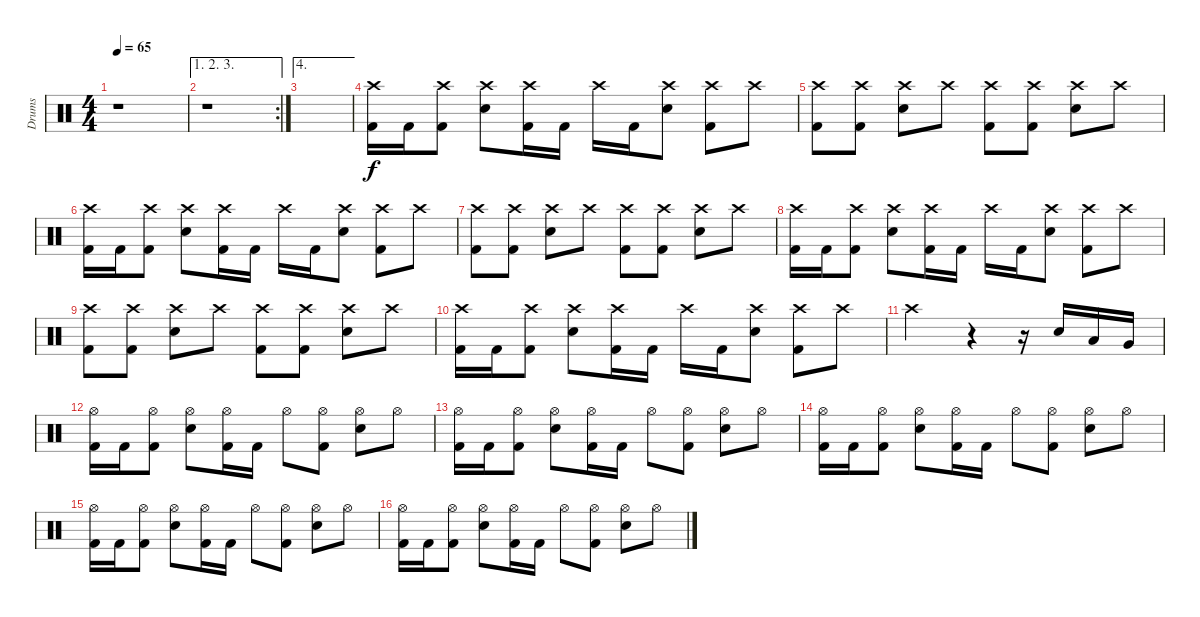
\track ("Drums" "Drums") {instrument percussion}
\staff {score}
\articulation defaults
\ts (4 4)
\tempo 65
\clef neutral
\ks c
r.1{dy f} |
\ae (1 2 3)
\rc 2
r.1 |
\ae 4
|
("Crash high (hit)" "Kick (hit) 2").16 "Kick (hit) 2".16 ("Crash high (hit)" "Kick (hit) 2").8 ("Crash high (hit)" "Electric Snare (hit)").8 ("Crash high (hit)" "Kick (hit) 2").16 "Kick (hit) 2".16 "Crash high (hit)".16 "Kick (hit) 2".16 ("Crash high (hit)" "Electric Snare (hit)").8 ("Crash high (hit)" "Kick (hit) 2").8 "Crash high (hit)".8 |
("Crash high (hit)" "Kick (hit) 2").8 ("Crash high (hit)" "Kick (hit) 2").8 ("Crash high (hit)" "Electric Snare (hit)").8 "Crash high (hit)".8 ("Crash high (hit)" "Kick (hit) 2").8 ("Crash high (hit)" "Kick (hit) 2").8 ("Crash high (hit)" "Electric Snare (hit)").8 "Crash high (hit)".8 |
("Crash high (hit)" "Kick (hit) 2").16 "Kick (hit) 2".16 ("Crash high (hit)" "Kick (hit) 2").8 ("Crash high (hit)" "Electric Snare (hit)").8 ("Crash high (hit)" "Kick (hit) 2").16 "Kick (hit) 2".16 "Crash high (hit)".16 "Kick (hit) 2".16 ("Crash high (hit)" "Electric Snare (hit)").8 ("Crash high (hit)" "Kick (hit) 2").8 "Crash high (hit)".8 |
("Crash high (hit)" "Kick (hit) 2").8 ("Crash high (hit)" "Kick (hit) 2").8 ("Crash high (hit)" "Electric Snare (hit)").8 "Crash high (hit)".8 ("Crash high (hit)" "Kick (hit) 2").8 ("Crash high (hit)" "Kick (hit) 2").8 ("Crash high (hit)" "Electric Snare (hit)").8 "Crash high (hit)".8 |
("Crash high (hit)" "Kick (hit) 2").16 "Kick (hit) 2".16 ("Crash high (hit)" "Kick (hit) 2").8 ("Crash high (hit)" "Electric Snare (hit)").8 ("Crash high (hit)" "Kick (hit) 2").16 "Kick (hit) 2".16 "Crash high (hit)".16 "Kick (hit) 2".16 ("Crash high (hit)" "Electric Snare (hit)").8 ("Crash high (hit)" "Kick (hit) 2").8 "Crash high (hit)".8 |
("Crash high (hit)" "Kick (hit) 2").8 ("Crash high (hit)" "Kick (hit) 2").8 ("Crash high (hit)" "Electric Snare (hit)").8 "Crash high (hit)".8 ("Crash high (hit)" "Kick (hit) 2").8 ("Crash high (hit)" "Kick (hit) 2").8 ("Crash high (hit)" "Electric Snare (hit)").8 "Crash high (hit)".8 |
("Crash high (hit)" "Kick (hit) 2").16 "Kick (hit) 2".16 ("Crash high (hit)" "Kick (hit) 2").8 ("Crash high (hit)" "Electric Snare (hit)").8 ("Crash high (hit)" "Kick (hit) 2").16 "Kick (hit) 2".16 "Crash high (hit)".16 "Kick (hit) 2".16 ("Crash high (hit)" "Electric Snare (hit)").8 ("Crash high (hit)" "Kick (hit) 2").8 "Crash high (hit)".8 |
"Crash high (hit)".2 r.4 r.16 "Electric Snare (hit)".16 "Low Tom (hit)".16 "Very Low Tom (hit)".16 |
("Hi-Hat (open)" "Kick (hit) 2").16 "Kick (hit) 2".16 ("Hi-Hat (open)" "Kick (hit) 2").8 ("Hi-Hat (open)" "Electric Snare (hit)").8 ("Hi-Hat (open)" "Kick (hit) 2").16 "Kick (hit) 2".16 "Hi-Hat (open)".8 ("Hi-Hat (open)" "Kick (hit) 2").8 ("Hi-Hat (open)" "Electric Snare (hit)").8 "Hi-Hat (open)".8 |
("Hi-Hat (open)" "Kick (hit) 2").16 "Kick (hit) 2".16 ("Hi-Hat (open)" "Kick (hit) 2").8 ("Hi-Hat (open)" "Electric Snare (hit)").8 ("Hi-Hat (open)" "Kick (hit) 2").16 "Kick (hit) 2".16 "Hi-Hat (open)".8 ("Hi-Hat (open)" "Kick (hit) 2").8 ("Hi-Hat (open)" "Electric Snare (hit)").8 "Hi-Hat (open)".8 |
("Hi-Hat (open)" "Kick (hit) 2").16 "Kick (hit) 2".16 ("Hi-Hat (open)" "Kick (hit) 2").8 ("Hi-Hat (open)" "Electric Snare (hit)").8 ("Hi-Hat (open)" "Kick (hit) 2").16 "Kick (hit) 2".16 "Hi-Hat (open)".8 ("Hi-Hat (open)" "Kick (hit) 2").8 ("Hi-Hat (open)" "Electric Snare (hit)").8 "Hi-Hat (open)".8 |
("Hi-Hat (open)" "Kick (hit) 2").16 "Kick (hit) 2".16 ("Hi-Hat (open)" "Kick (hit) 2").8 ("Hi-Hat (open)" "Electric Snare (hit)").8 ("Hi-Hat (open)" "Kick (hit) 2").16 "Kick (hit) 2".16 "Hi-Hat (open)".8 ("Hi-Hat (open)" "Kick (hit) 2").8 ("Hi-Hat (open)" "Electric Snare (hit)").8 "Hi-Hat (open)".8 |
("Hi-Hat (open)" "Kick (hit) 2").16 "Kick (hit) 2".16 ("Hi-Hat (open)" "Kick (hit) 2").8 ("Hi-Hat (open)" "Electric Snare (hit)").8 ("Hi-Hat (open)" "Kick (hit) 2").16 "Kick (hit) 2".16 "Hi-Hat (open)".8 ("Hi-Hat (open)" "Kick (hit) 2").8 ("Hi-Hat (open)" "Electric Snare (hit)").8 "Hi-Hat (open)".8
